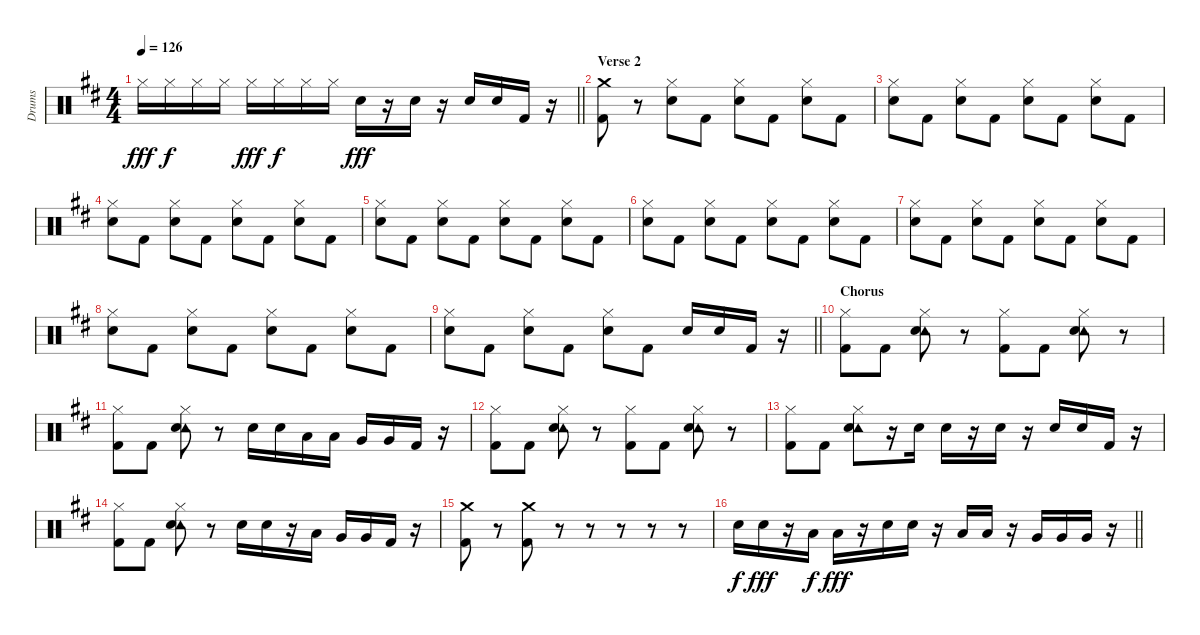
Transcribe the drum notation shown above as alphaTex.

\track ("Drums" "Drums") {instrument percussion}
\staff {score}
\articulation defaults
\ts (4 4)
\tempo 126
\clef neutral
\barLineRight lightlight
\ks d "Hi-Hat (closed)".16{dy fff} "Hi-Hat (closed)".16{dy f} "Hi-Hat (closed)".16 "Hi-Hat (closed)".16 "Hi-Hat (closed)".16{dy fff} "Hi-Hat (closed)".16{dy f} "Hi-Hat (closed)".16 "Hi-Hat (closed)".16 "Snare (hit) 2".16{dy fff}
r.16 "Snare (hit) 2".16 r.16 "Snare (hit) 2".16 "Snare (hit) 2".16 "Kick (hit) 2".16 r.16 |
\section ("" "Verse 2")
("Crash medium (hit)" "Kick (hit) 2").8 r.8 ("Hi-Hat (closed)" "Snare (hit) 2").8 "Kick (hit) 2".8 ("Hi-Hat (closed)" "Snare (hit) 2").8 "Kick (hit) 2".8 ("Hi-Hat (closed)" "Snare (hit) 2").8 "Kick (hit) 2".8 |
("Hi-Hat (closed)" "Snare (hit) 2").8 "Kick (hit) 2".8 ("Hi-Hat (closed)" "Snare (hit) 2").8 "Kick (hit) 2".8 ("Hi-Hat (closed)" "Snare (hit) 2").8 "Kick (hit) 2".8 ("Hi-Hat (closed)" "Snare (hit) 2").8 "Kick (hit) 2".8 |
("Hi-Hat (closed)" "Snare (hit) 2").8 "Kick (hit) 2".8 ("Hi-Hat (closed)" "Snare (hit) 2").8 "Kick (hit) 2".8 ("Hi-Hat (closed)" "Snare (hit) 2").8 "Kick (hit) 2".8 ("Hi-Hat (closed)" "Snare (hit) 2").8 "Kick (hit) 2".8 |
("Hi-Hat (closed)" "Snare (hit) 2").8 "Kick (hit) 2".8 ("Hi-Hat (closed)" "Snare (hit) 2").8 "Kick (hit) 2".8 ("Hi-Hat (closed)" "Snare (hit) 2").8 "Kick (hit) 2".8 ("Hi-Hat (closed)" "Snare (hit) 2").8 "Kick (hit) 2".8 |
("Hi-Hat (closed)" "Snare (hit) 2").8 "Kick (hit) 2".8 ("Hi-Hat (closed)" "Snare (hit) 2").8 "Kick (hit) 2".8 ("Hi-Hat (closed)" "Snare (hit) 2").8 "Kick (hit) 2".8 ("Hi-Hat (closed)" "Snare (hit) 2").8 "Kick (hit) 2".8 |
("Hi-Hat (closed)" "Snare (hit) 2").8 "Kick (hit) 2".8 ("Hi-Hat (closed)" "Snare (hit) 2").8 "Kick (hit) 2".8 ("Hi-Hat (closed)" "Snare (hit) 2").8 "Kick (hit) 2".8 ("Hi-Hat (closed)" "Snare (hit) 2").8 "Kick (hit) 2".8 |
("Hi-Hat (closed)" "Snare (hit) 2").8 "Kick (hit) 2".8 ("Hi-Hat (closed)" "Snare (hit) 2").8 "Kick (hit) 2".8 ("Hi-Hat (closed)" "Snare (hit) 2").8 "Kick (hit) 2".8 ("Hi-Hat (closed)" "Snare (hit) 2").8 "Kick (hit) 2".8 |
\barLineRight lightlight
("Hi-Hat (closed)" "Snare (hit) 2").8 "Kick (hit) 2".8 ("Hi-Hat (closed)" "Snare (hit) 2").8 "Kick (hit) 2".8 ("Hi-Hat (closed)" "Snare (hit) 2").8 "Kick (hit) 2".8 "Snare (hit) 2".16 "Snare (hit) 2".16 "Kick (hit) 2".16 r.16 |
\section ("" "Chorus")
("Hi-Hat (closed)" "Kick (hit) 2").8 "Kick (hit) 2".8 ("Hi-Hat (closed)" "Tambourine (hit)" "Snare (hit) 2").8 r.8 ("Hi-Hat (closed)" "Kick (hit) 2").8 "Kick (hit) 2".8 ("Hi-Hat (closed)" "Tambourine (hit)" "Snare (hit) 2").8 r.8 |
("Hi-Hat (closed)" "Kick (hit) 2").8 "Kick (hit) 2".8 ("Hi-Hat (closed)" "Tambourine (hit)" "Snare (hit) 2").8 r.8 "Snare (hit) 2".16 "Snare (hit) 2".16 "Low Tom (hit)".16 "Low Tom (hit)".16 "Very Low Tom (hit)".16 "Very Low Tom (hit)".16 "Kick (hit) 2".16 r.16 |
("Hi-Hat (closed)" "Kick (hit) 2").8 "Kick (hit) 2".8 ("Hi-Hat (closed)" "Tambourine (hit)" "Snare (hit) 2").8 r.8 ("Hi-Hat (closed)" "Kick (hit) 2").8 "Kick (hit) 2".8 ("Hi-Hat (closed)" "Tambourine (hit)" "Snare (hit) 2").8 r.8 |
("Hi-Hat (closed)" "Kick (hit) 2").8 "Kick (hit) 2".8 ("Hi-Hat (closed)" "Tambourine (hit)" "Snare (hit) 2").8 r.16 "Snare (hit) 2".16 "Snare (hit) 2".16 r.16 "Snare (hit) 2".16 r.16 "Snare (hit) 2".16 "Snare (hit) 2".16 "Kick (hit) 2".16 r.16 |
("Hi-Hat (closed)" "Kick (hit) 2").8 "Kick (hit) 2".8 ("Hi-Hat (closed)" "Tambourine (hit)" "Snare (hit) 2").8 r.8 "Snare (hit) 2".16 "Snare (hit) 2".16 r.16 "Low Tom (hit)".16 "Very Low Tom (hit)".16 "Very Low Tom (hit)".16 "Kick (hit) 2".16 r.16 |
("Crash medium (hit)" "Kick (hit) 2").8 r.8 ("Crash medium (hit)" "Kick (hit) 2").8 r.8 r.8 r.8 r.8 r.8 |
\barLineRight lightlight "Snare (hit) 2".16{dy f} "Snare (hit) 2".16{dy fff}
r.16 "Low Tom (hit)".16{dy f} "Low Tom (hit)".16{dy fff} r.16 "Snare (hit) 2".16 "Snare (hit) 2".16 r.16 "Low Tom (hit)".16 "Low Tom (hit)".16 r.16 "Very Low Tom (hit)".16 "Very Low Tom (hit)".16 "Very Low Tom (hit)".16 r.16
